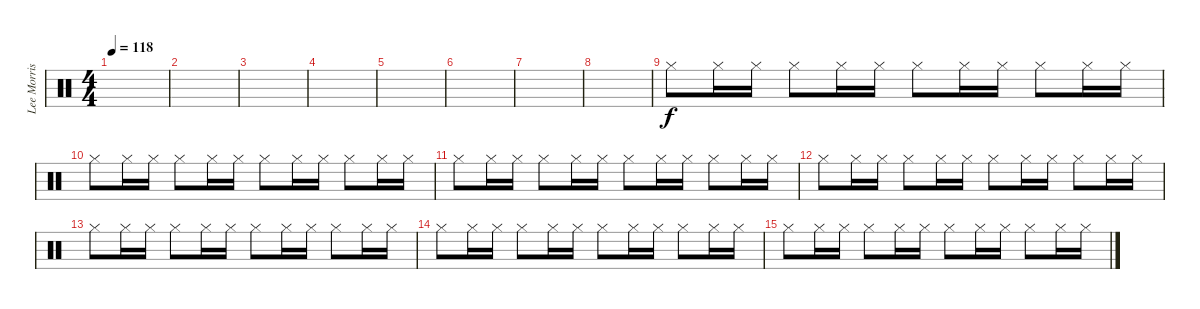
\track ("Lee Morris" "Lee Morris") {instrument percussion}
\staff {score}
\articulation defaults
\ts (4 4)
\tempo 118
\clef neutral
\ks c
|
|
|
|
|
|
|
|
"Hi-Hat (closed)".8 "Hi-Hat (closed)".16 "Hi-Hat (closed)".16 "Hi-Hat (closed)".8 "Hi-Hat (closed)".16 "Hi-Hat (closed)".16 "Hi-Hat (closed)".8 "Hi-Hat (closed)".16 "Hi-Hat (closed)".16 "Hi-Hat (closed)".8 "Hi-Hat (closed)".16 "Hi-Hat (closed)".16 |
"Hi-Hat (closed)".8 "Hi-Hat (closed)".16 "Hi-Hat (closed)".16 "Hi-Hat (closed)".8 "Hi-Hat (closed)".16 "Hi-Hat (closed)".16 "Hi-Hat (closed)".8 "Hi-Hat (closed)".16 "Hi-Hat (closed)".16 "Hi-Hat (closed)".8 "Hi-Hat (closed)".16 "Hi-Hat (closed)".16 |
"Hi-Hat (closed)".8 "Hi-Hat (closed)".16 "Hi-Hat (closed)".16 "Hi-Hat (closed)".8 "Hi-Hat (closed)".16 "Hi-Hat (closed)".16 "Hi-Hat (closed)".8 "Hi-Hat (closed)".16 "Hi-Hat (closed)".16 "Hi-Hat (closed)".8 "Hi-Hat (closed)".16 "Hi-Hat (closed)".16 |
"Hi-Hat (closed)".8 "Hi-Hat (closed)".16 "Hi-Hat (closed)".16 "Hi-Hat (closed)".8 "Hi-Hat (closed)".16 "Hi-Hat (closed)".16 "Hi-Hat (closed)".8 "Hi-Hat (closed)".16 "Hi-Hat (closed)".16 "Hi-Hat (closed)".8 "Hi-Hat (closed)".16 "Hi-Hat (closed)".16 |
"Hi-Hat (closed)".8 "Hi-Hat (closed)".16 "Hi-Hat (closed)".16 "Hi-Hat (closed)".8 "Hi-Hat (closed)".16 "Hi-Hat (closed)".16 "Hi-Hat (closed)".8 "Hi-Hat (closed)".16 "Hi-Hat (closed)".16 "Hi-Hat (closed)".8 "Hi-Hat (closed)".16 "Hi-Hat (closed)".16 |
"Hi-Hat (closed)".8 "Hi-Hat (closed)".16 "Hi-Hat (closed)".16 "Hi-Hat (closed)".8 "Hi-Hat (closed)".16 "Hi-Hat (closed)".16 "Hi-Hat (closed)".8 "Hi-Hat (closed)".16 "Hi-Hat (closed)".16 "Hi-Hat (closed)".8 "Hi-Hat (closed)".16 "Hi-Hat (closed)".16 |
"Hi-Hat (closed)".8 "Hi-Hat (closed)".16 "Hi-Hat (closed)".16 "Hi-Hat (closed)".8 "Hi-Hat (closed)".16 "Hi-Hat (closed)".16 "Hi-Hat (closed)".8 "Hi-Hat (closed)".16 "Hi-Hat (closed)".16 "Hi-Hat (closed)".8 "Hi-Hat (closed)".16 "Hi-Hat (closed)".16
